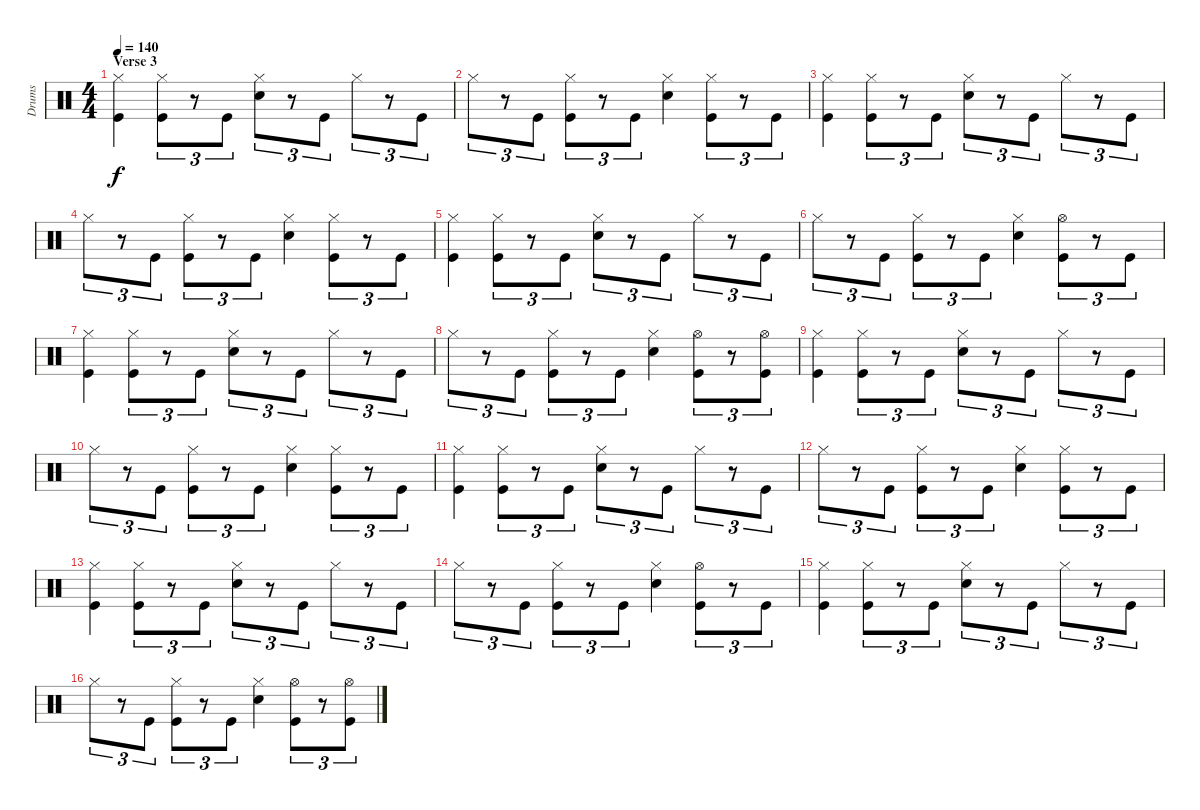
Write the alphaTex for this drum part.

\track ("Drums" "Drums") {instrument percussion}
\staff {score}
\articulation defaults
\ts (4 4)
\section ("" "Verse 3")
\tempo 140
\clef neutral
\ks c
("Hi-Hat (closed)" "Kick (hit)").4{dy f} ("Hi-Hat (closed)" "Kick (hit)").8{tu (3 2)} r.8{tu (3 2)} "Kick (hit)".8{tu (3 2)} ("Hi-Hat (closed)" "Electric Snare (hit)").8{tu (3 2)} r.8{tu (3 2)} "Kick (hit)".8{tu (3 2)} "Hi-Hat (closed)".8{tu (3 2)} r.8{tu (3 2)} "Kick (hit)".8{tu (3 2)} |
"Hi-Hat (closed)".8{tu (3 2)} r.8{tu (3 2)} "Kick (hit)".8{tu (3 2)} ("Hi-Hat (closed)" "Kick (hit)").8{tu (3 2)} r.8{tu (3 2)} "Kick (hit)".8{tu (3 2)} ("Hi-Hat (closed)" "Electric Snare (hit)").4 ("Hi-Hat (closed)" "Kick (hit)").8{tu (3 2)} r.8{tu (3 2)} "Kick (hit)".8{tu (3 2)} |
("Hi-Hat (closed)" "Kick (hit)").4 ("Hi-Hat (closed)" "Kick (hit)").8{tu (3 2)} r.8{tu (3 2)} "Kick (hit)".8{tu (3 2)} ("Hi-Hat (closed)" "Electric Snare (hit)").8{tu (3 2)} r.8{tu (3 2)} "Kick (hit)".8{tu (3 2)} "Hi-Hat (closed)".8{tu (3 2)} r.8{tu (3 2)} "Kick (hit)".8{tu (3 2)} |
"Hi-Hat (closed)".8{tu (3 2)} r.8{tu (3 2)} "Kick (hit)".8{tu (3 2)} ("Hi-Hat (closed)" "Kick (hit)").8{tu (3 2)} r.8{tu (3 2)} "Kick (hit)".8{tu (3 2)} ("Hi-Hat (closed)" "Electric Snare (hit)").4 ("Hi-Hat (closed)" "Kick (hit)").8{tu (3 2)} r.8{tu (3 2)} "Kick (hit)".8{tu (3 2)} |
("Hi-Hat (closed)" "Kick (hit)").4 ("Hi-Hat (closed)" "Kick (hit)").8{tu (3 2)} r.8{tu (3 2)} "Kick (hit)".8{tu (3 2)} ("Hi-Hat (closed)" "Electric Snare (hit)").8{tu (3 2)} r.8{tu (3 2)} "Kick (hit)".8{tu (3 2)} "Hi-Hat (closed)".8{tu (3 2)} r.8{tu (3 2)} "Kick (hit)".8{tu (3 2)} |
"Hi-Hat (closed)".8{tu (3 2)} r.8{tu (3 2)} "Kick (hit)".8{tu (3 2)} ("Hi-Hat (closed)" "Kick (hit)").8{tu (3 2)} r.8{tu (3 2)} "Kick (hit)".8{tu (3 2)} ("Hi-Hat (closed)" "Electric Snare (hit)").4 ("Hi-Hat (open)" "Kick (hit)").8{tu (3 2)} r.8{tu (3 2)} "Kick (hit)".8{tu (3 2)} |
("Hi-Hat (closed)" "Kick (hit)").4 ("Hi-Hat (closed)" "Kick (hit)").8{tu (3 2)} r.8{tu (3 2)} "Kick (hit)".8{tu (3 2)} ("Hi-Hat (closed)" "Electric Snare (hit)").8{tu (3 2)} r.8{tu (3 2)} "Kick (hit)".8{tu (3 2)} "Hi-Hat (closed)".8{tu (3 2)} r.8{tu (3 2)} "Kick (hit)".8{tu (3 2)} |
"Hi-Hat (closed)".8{tu (3 2)} r.8{tu (3 2)} "Kick (hit)".8{tu (3 2)} ("Hi-Hat (closed)" "Kick (hit)").8{tu (3 2)} r.8{tu (3 2)} "Kick (hit)".8{tu (3 2)} ("Hi-Hat (closed)" "Electric Snare (hit)").4 ("Hi-Hat (open)" "Kick (hit)").8{tu (3 2)} r.8{tu (3 2)} ("Hi-Hat (open)" "Kick (hit)").8{tu (3 2)} |
("Hi-Hat (closed)" "Kick (hit)").4 ("Hi-Hat (closed)" "Kick (hit)").8{tu (3 2)} r.8{tu (3 2)} "Kick (hit)".8{tu (3 2)} ("Hi-Hat (closed)" "Electric Snare (hit)").8{tu (3 2)} r.8{tu (3 2)} "Kick (hit)".8{tu (3 2)} "Hi-Hat (closed)".8{tu (3 2)} r.8{tu (3 2)} "Kick (hit)".8{tu (3 2)} |
"Hi-Hat (closed)".8{tu (3 2)} r.8{tu (3 2)} "Kick (hit)".8{tu (3 2)} ("Hi-Hat (closed)" "Kick (hit)").8{tu (3 2)} r.8{tu (3 2)} "Kick (hit)".8{tu (3 2)} ("Hi-Hat (closed)" "Electric Snare (hit)").4 ("Hi-Hat (closed)" "Kick (hit)").8{tu (3 2)} r.8{tu (3 2)} "Kick (hit)".8{tu (3 2)} |
("Hi-Hat (closed)" "Kick (hit)").4 ("Hi-Hat (closed)" "Kick (hit)").8{tu (3 2)} r.8{tu (3 2)} "Kick (hit)".8{tu (3 2)} ("Hi-Hat (closed)" "Electric Snare (hit)").8{tu (3 2)} r.8{tu (3 2)} "Kick (hit)".8{tu (3 2)} "Hi-Hat (closed)".8{tu (3 2)} r.8{tu (3 2)} "Kick (hit)".8{tu (3 2)} |
"Hi-Hat (closed)".8{tu (3 2)} r.8{tu (3 2)} "Kick (hit)".8{tu (3 2)} ("Hi-Hat (closed)" "Kick (hit)").8{tu (3 2)} r.8{tu (3 2)} "Kick (hit)".8{tu (3 2)} ("Hi-Hat (closed)" "Electric Snare (hit)").4 ("Hi-Hat (closed)" "Kick (hit)").8{tu (3 2)} r.8{tu (3 2)} "Kick (hit)".8{tu (3 2)} |
("Hi-Hat (closed)" "Kick (hit)").4 ("Hi-Hat (closed)" "Kick (hit)").8{tu (3 2)} r.8{tu (3 2)} "Kick (hit)".8{tu (3 2)} ("Hi-Hat (closed)" "Electric Snare (hit)").8{tu (3 2)} r.8{tu (3 2)} "Kick (hit)".8{tu (3 2)} "Hi-Hat (closed)".8{tu (3 2)} r.8{tu (3 2)} "Kick (hit)".8{tu (3 2)} |
"Hi-Hat (closed)".8{tu (3 2)} r.8{tu (3 2)} "Kick (hit)".8{tu (3 2)} ("Hi-Hat (closed)" "Kick (hit)").8{tu (3 2)} r.8{tu (3 2)} "Kick (hit)".8{tu (3 2)} ("Hi-Hat (closed)" "Electric Snare (hit)").4 ("Hi-Hat (open)" "Kick (hit)").8{tu (3 2)} r.8{tu (3 2)} "Kick (hit)".8{tu (3 2)} |
("Hi-Hat (closed)" "Kick (hit)").4 ("Hi-Hat (closed)" "Kick (hit)").8{tu (3 2)} r.8{tu (3 2)} "Kick (hit)".8{tu (3 2)} ("Hi-Hat (closed)" "Electric Snare (hit)").8{tu (3 2)} r.8{tu (3 2)} "Kick (hit)".8{tu (3 2)} "Hi-Hat (closed)".8{tu (3 2)} r.8{tu (3 2)} "Kick (hit)".8{tu (3 2)} |
"Hi-Hat (closed)".8{tu (3 2)} r.8{tu (3 2)} "Kick (hit)".8{tu (3 2)} ("Hi-Hat (closed)" "Kick (hit)").8{tu (3 2)} r.8{tu (3 2)} "Kick (hit)".8{tu (3 2)} ("Hi-Hat (closed)" "Electric Snare (hit)").4 ("Hi-Hat (open)" "Kick (hit)").8{tu (3 2)} r.8{tu (3 2)} ("Hi-Hat (open)" "Kick (hit)").8{tu (3 2)}
